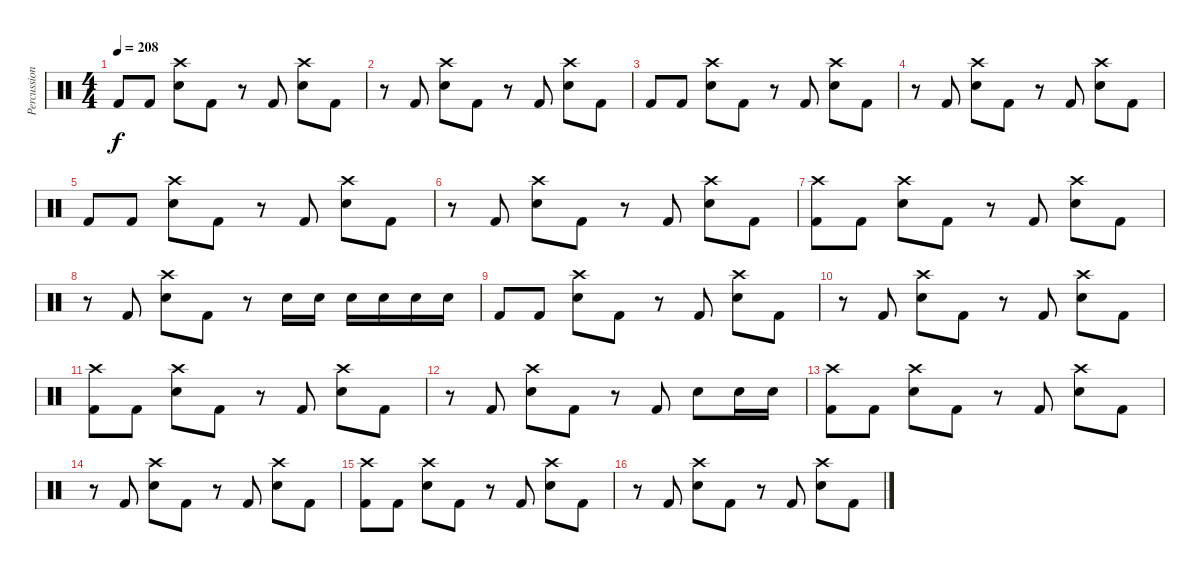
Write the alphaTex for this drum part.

\track ("Percussion" "Percussion") {instrument percussion}
\staff {score}
\articulation defaults
\ts (4 4)
\tempo 208
\clef neutral
\ks c "Kick (hit) 2".8{dy f} "Kick (hit) 2".8
("Crash high (hit)" "Electric Snare (hit)").8 "Kick (hit) 2".8 r.8 "Kick (hit) 2".8 ("Crash high (hit)" "Electric Snare (hit)").8 "Kick (hit) 2".8 |
r.8 "Kick (hit) 2".8 ("Crash high (hit)" "Electric Snare (hit)").8 "Kick (hit) 2".8 r.8 "Kick (hit) 2".8 ("Crash high (hit)" "Electric Snare (hit)").8 "Kick (hit) 2".8 |
"Kick (hit) 2".8 "Kick (hit) 2".8 ("Crash high (hit)" "Electric Snare (hit)").8 "Kick (hit) 2".8 r.8 "Kick (hit) 2".8 ("Crash high (hit)" "Electric Snare (hit)").8 "Kick (hit) 2".8 |
r.8 "Kick (hit) 2".8 ("Crash high (hit)" "Electric Snare (hit)").8 "Kick (hit) 2".8 r.8 "Kick (hit) 2".8 ("Crash high (hit)" "Electric Snare (hit)").8 "Kick (hit) 2".8 |
"Kick (hit) 2".8 "Kick (hit) 2".8 ("Crash high (hit)" "Electric Snare (hit)").8 "Kick (hit) 2".8 r.8 "Kick (hit) 2".8 ("Crash high (hit)" "Electric Snare (hit)").8 "Kick (hit) 2".8 |
r.8 "Kick (hit) 2".8 ("Crash high (hit)" "Electric Snare (hit)").8 "Kick (hit) 2".8 r.8 "Kick (hit) 2".8 ("Crash high (hit)" "Electric Snare (hit)").8 "Kick (hit) 2".8 |
("Crash high (hit)" "Kick (hit) 2").8 "Kick (hit) 2".8 ("Crash high (hit)" "Electric Snare (hit)").8 "Kick (hit) 2".8 r.8 "Kick (hit) 2".8 ("Crash high (hit)" "Electric Snare (hit)").8 "Kick (hit) 2".8 |
r.8 "Kick (hit) 2".8 ("Crash high (hit)" "Electric Snare (hit)").8 "Kick (hit) 2".8 r.8 "Electric Snare (hit)".16 "Electric Snare (hit)".16 "Electric Snare (hit)".16 "Electric Snare (hit)".16 "Electric Snare (hit)".16 "Electric Snare (hit)".16 |
"Kick (hit) 2".8 "Kick (hit) 2".8 ("Crash high (hit)" "Electric Snare (hit)").8 "Kick (hit) 2".8 r.8 "Kick (hit) 2".8 ("Crash high (hit)" "Electric Snare (hit)").8 "Kick (hit) 2".8 |
r.8 "Kick (hit) 2".8 ("Crash high (hit)" "Electric Snare (hit)").8 "Kick (hit) 2".8 r.8 "Kick (hit) 2".8 ("Crash high (hit)" "Electric Snare (hit)").8 "Kick (hit) 2".8 |
("Crash high (hit)" "Kick (hit) 2").8 "Kick (hit) 2".8 ("Crash high (hit)" "Electric Snare (hit)").8 "Kick (hit) 2".8 r.8 "Kick (hit) 2".8 ("Crash high (hit)" "Electric Snare (hit)").8 "Kick (hit) 2".8 |
r.8 "Kick (hit) 2".8 ("Crash high (hit)" "Electric Snare (hit)").8 "Kick (hit) 2".8 r.8 "Kick (hit) 2".8 "Electric Snare (hit)".8 "Electric Snare (hit)".16 "Electric Snare (hit)".16 |
("Crash high (hit)" "Kick (hit) 2").8 "Kick (hit) 2".8 ("Crash high (hit)" "Electric Snare (hit)").8 "Kick (hit) 2".8 r.8 "Kick (hit) 2".8 ("Crash high (hit)" "Electric Snare (hit)").8 "Kick (hit) 2".8 |
r.8 "Kick (hit) 2".8 ("Crash high (hit)" "Electric Snare (hit)").8 "Kick (hit) 2".8 r.8 "Kick (hit) 2".8 ("Crash high (hit)" "Electric Snare (hit)").8 "Kick (hit) 2".8 |
("Crash high (hit)" "Kick (hit) 2").8 "Kick (hit) 2".8 ("Crash high (hit)" "Electric Snare (hit)").8 "Kick (hit) 2".8 r.8 "Kick (hit) 2".8 ("Crash high (hit)" "Electric Snare (hit)").8 "Kick (hit) 2".8 |
r.8 "Kick (hit) 2".8 ("Crash high (hit)" "Electric Snare (hit)").8 "Kick (hit) 2".8 r.8 "Kick (hit) 2".8 ("Crash high (hit)" "Electric Snare (hit)").8 "Kick (hit) 2".8
